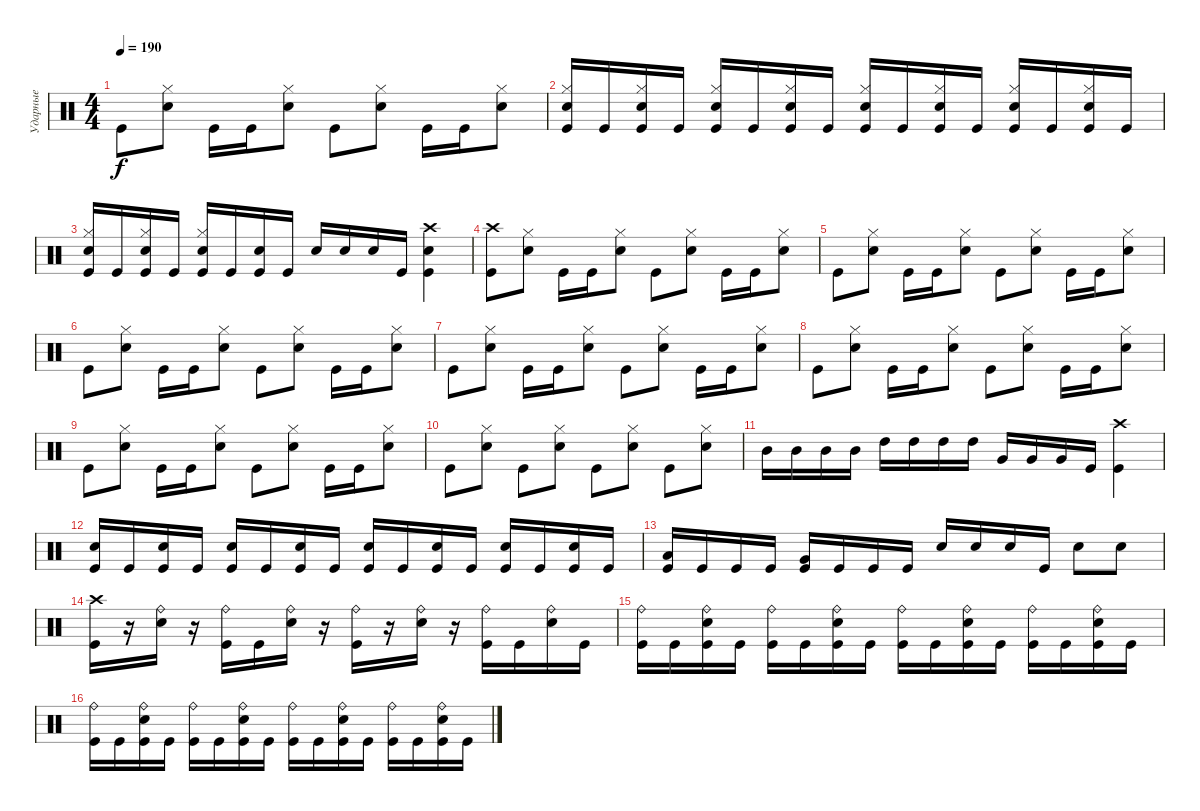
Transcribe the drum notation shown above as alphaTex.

\track ("Ударные" "Ударные") {instrument percussion}
\staff {score}
\articulation defaults
\ts (4 4)
\tempo 190
\clef neutral
\ks c "Kick (hit)".8{dy f}
("Hi-Hat (closed)" "Electric Snare (hit)").8 "Kick (hit)".16 "Kick (hit)".16 ("Hi-Hat (closed)" "Electric Snare (hit)").8 "Kick (hit)".8 ("Hi-Hat (closed)" "Electric Snare (hit)").8 "Kick (hit)".16 "Kick (hit)".16 ("Hi-Hat (closed)" "Electric Snare (hit)").8 |
("Hi-Hat (closed)" "Electric Snare (hit)" "Kick (hit)").16 "Kick (hit)".16 ("Hi-Hat (closed)" "Electric Snare (hit)" "Kick (hit)").16 "Kick (hit)".16 ("Hi-Hat (closed)" "Electric Snare (hit)" "Kick (hit)").16 "Kick (hit)".16 ("Hi-Hat (closed)" "Electric Snare (hit)" "Kick (hit)").16 "Kick (hit)".16 ("Hi-Hat (closed)" "Electric Snare (hit)" "Kick (hit)").16 "Kick (hit)".16 ("Hi-Hat (closed)" "Electric Snare (hit)" "Kick (hit)").16 "Kick (hit)".16 ("Hi-Hat (closed)" "Electric Snare (hit)" "Kick (hit)").16 "Kick (hit)".16 ("Hi-Hat (closed)" "Electric Snare (hit)" "Kick (hit)").16 "Kick (hit)".16 |
("Hi-Hat (closed)" "Electric Snare (hit)" "Kick (hit)").16 "Kick (hit)".16 ("Hi-Hat (closed)" "Electric Snare (hit)" "Kick (hit)").16 "Kick (hit)".16 ("Hi-Hat (closed)" "Electric Snare (hit)" "Kick (hit)").16 "Kick (hit)".16 ("Electric Snare (hit)" "Kick (hit)").16 "Kick (hit)".16 "Electric Snare (hit)".16 "Electric Snare (hit)".16 "Electric Snare (hit)".16 "Kick (hit)".16 ("Crash high (hit)" "Electric Snare (hit)" "Kick (hit)").4 |
("Crash high (hit)" "Kick (hit)").8 ("Hi-Hat (closed)" "Electric Snare (hit)").8 "Kick (hit)".16 "Kick (hit)".16 ("Hi-Hat (closed)" "Electric Snare (hit)").8 "Kick (hit)".8 ("Hi-Hat (closed)" "Electric Snare (hit)").8 "Kick (hit)".16 "Kick (hit)".16 ("Hi-Hat (closed)" "Electric Snare (hit)").8 |
"Kick (hit)".8 ("Hi-Hat (closed)" "Electric Snare (hit)").8 "Kick (hit)".16 "Kick (hit)".16 ("Hi-Hat (closed)" "Electric Snare (hit)").8 "Kick (hit)".8 ("Hi-Hat (closed)" "Electric Snare (hit)").8 "Kick (hit)".16 "Kick (hit)".16 ("Hi-Hat (closed)" "Electric Snare (hit)").8 |
"Kick (hit)".8 ("Hi-Hat (closed)" "Electric Snare (hit)").8 "Kick (hit)".16 "Kick (hit)".16 ("Hi-Hat (closed)" "Electric Snare (hit)").8 "Kick (hit)".8 ("Hi-Hat (closed)" "Electric Snare (hit)").8 "Kick (hit)".16 "Kick (hit)".16 ("Hi-Hat (closed)" "Electric Snare (hit)").8 |
"Kick (hit)".8 ("Hi-Hat (closed)" "Electric Snare (hit)").8 "Kick (hit)".16 "Kick (hit)".16 ("Hi-Hat (closed)" "Electric Snare (hit)").8 "Kick (hit)".8 ("Hi-Hat (closed)" "Electric Snare (hit)").8 "Kick (hit)".16 "Kick (hit)".16 ("Hi-Hat (closed)" "Electric Snare (hit)").8 |
"Kick (hit)".8 ("Hi-Hat (closed)" "Electric Snare (hit)").8 "Kick (hit)".16 "Kick (hit)".16 ("Hi-Hat (closed)" "Electric Snare (hit)").8 "Kick (hit)".8 ("Hi-Hat (closed)" "Electric Snare (hit)").8 "Kick (hit)".16 "Kick (hit)".16 ("Hi-Hat (closed)" "Electric Snare (hit)").8 |
"Kick (hit)".8 ("Hi-Hat (closed)" "Electric Snare (hit)").8 "Kick (hit)".16 "Kick (hit)".16 ("Hi-Hat (closed)" "Electric Snare (hit)").8 "Kick (hit)".8 ("Hi-Hat (closed)" "Electric Snare (hit)").8 "Kick (hit)".16 "Kick (hit)".16 ("Hi-Hat (closed)" "Electric Snare (hit)").8 |
"Kick (hit)".8 ("Hi-Hat (closed)" "Electric Snare (hit)").8 "Kick (hit)".8 ("Hi-Hat (closed)" "Electric Snare (hit)").8 "Kick (hit)".8 ("Hi-Hat (closed)" "Electric Snare (hit)").8 "Kick (hit)".8 ("Hi-Hat (closed)" "Electric Snare (hit)").8 |
"Mid Tom (hit)".16 "Mid Tom (hit)".16 "Mid Tom (hit)".16 "Mid Tom (hit)".16 "High Tom (hit)".16 "High Tom (hit)".16 "High Tom (hit)".16 "High Tom (hit)".16 "Very Low Tom (hit)".16 "Very Low Tom (hit)".16 "Very Low Tom (hit)".16 "Kick (hit)".16 ("Crash high (hit)" "Kick (hit)").4 |
("Electric Snare (hit)" "Kick (hit)").16 "Kick (hit)".16 ("Electric Snare (hit)" "Kick (hit)").16 "Kick (hit)".16 ("Electric Snare (hit)" "Kick (hit)").16 "Kick (hit)".16 ("Electric Snare (hit)" "Kick (hit)").16 "Kick (hit)".16 ("Electric Snare (hit)" "Kick (hit)").16 "Kick (hit)".16 ("Electric Snare (hit)" "Kick (hit)").16 "Kick (hit)".16 ("Electric Snare (hit)" "Kick (hit)").16 "Kick (hit)".16 ("Electric Snare (hit)" "Kick (hit)").16 "Kick (hit)".16 |
("Low Tom (hit)" "Kick (hit)").16 "Kick (hit)".16 "Kick (hit)".16 "Kick (hit)".16 ("Very Low Tom (hit)" "Kick (hit)").16 "Kick (hit)".16 "Kick (hit)".16 "Kick (hit)".16 "Electric Snare (hit)".16 "Electric Snare (hit)".16 "Electric Snare (hit)".16 "Kick (hit)".16 "Electric Snare (hit)".8 "Electric Snare (hit)".8 |
("Crash high (hit)" "Kick (hit)").16 r.16 ("Ride (bell)" "Electric Snare (hit)").16 r.16 ("Ride (bell)" "Kick (hit)").16 "Kick (hit)".16 ("Ride (bell)" "Electric Snare (hit)").16 r.16 ("Ride (bell)" "Kick (hit)").16 r.16 ("Ride (bell)" "Electric Snare (hit)").16 r.16 ("Ride (bell)" "Kick (hit)").16 "Kick (hit)".16 ("Ride (bell)" "Electric Snare (hit)").16 "Kick (hit)".16 |
("Ride (bell)" "Kick (hit)").16 "Kick (hit)".16 ("Ride (bell)" "Electric Snare (hit)" "Kick (hit)").16 "Kick (hit)".16 ("Ride (bell)" "Kick (hit)").16 "Kick (hit)".16 ("Ride (bell)" "Electric Snare (hit)" "Kick (hit)").16 "Kick (hit)".16 ("Ride (bell)" "Kick (hit)").16 "Kick (hit)".16 ("Ride (bell)" "Electric Snare (hit)" "Kick (hit)").16 "Kick (hit)".16 ("Ride (bell)" "Kick (hit)").16 "Kick (hit)".16 ("Ride (bell)" "Electric Snare (hit)" "Kick (hit)").16 "Kick (hit)".16 |
("Ride (bell)" "Kick (hit)").16 "Kick (hit)".16 ("Ride (bell)" "Electric Snare (hit)" "Kick (hit)").16 "Kick (hit)".16 ("Ride (bell)" "Kick (hit)").16 "Kick (hit)".16 ("Ride (bell)" "Electric Snare (hit)" "Kick (hit)").16 "Kick (hit)".16 ("Ride (bell)" "Kick (hit)").16 "Kick (hit)".16 ("Ride (bell)" "Electric Snare (hit)" "Kick (hit)").16 "Kick (hit)".16 ("Ride (bell)" "Kick (hit)").16 "Kick (hit)".16 ("Ride (bell)" "Electric Snare (hit)" "Kick (hit)").16 "Kick (hit)".16
